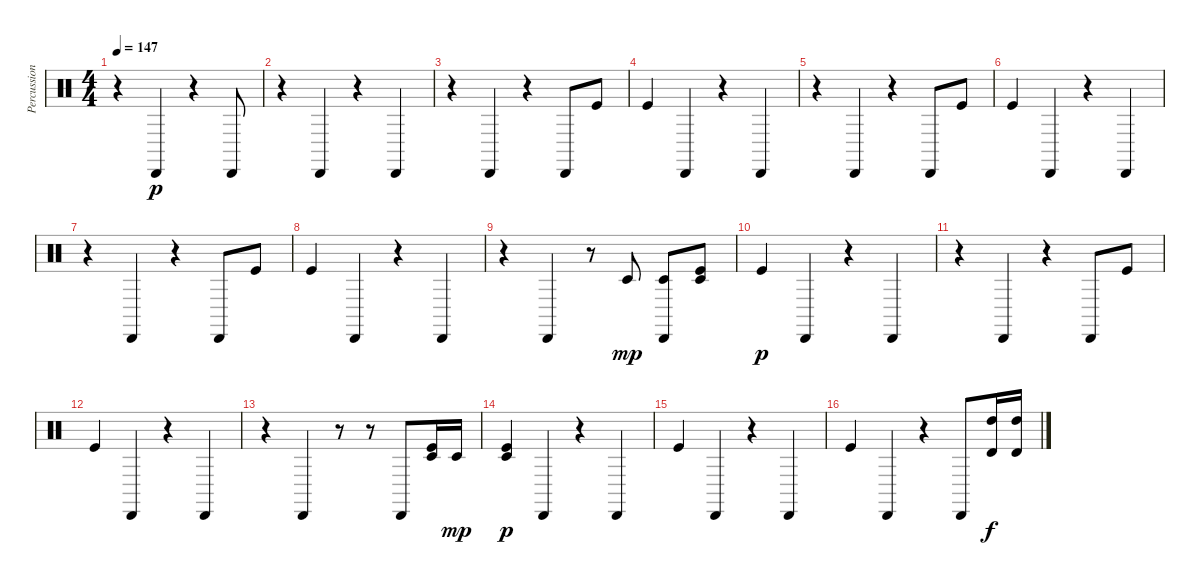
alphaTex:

\track ("Percussions" "Percussion") {instrument percussion}
\staff {score}
\articulation defaults
\ts (4 4)
\tempo 147
\clef neutral
\ks c
r.4{dy p} "Cabasa (hit)".4 r.4 "Cabasa (hit)".8 |
r.4 "Cabasa (hit)".4 r.4 "Cabasa (hit)".4 |
r.4 "Cabasa (hit)".4 r.4 "Cabasa (hit)".8 "Kick (hit)".8 |
"Kick (hit)".4 "Cabasa (hit)".4 r.4 "Cabasa (hit)".4 |
r.4 "Cabasa (hit)".4 r.4 "Cabasa (hit)".8 "Kick (hit)".8 |
"Kick (hit)".4 "Cabasa (hit)".4 r.4 "Cabasa (hit)".4 |
r.4 "Cabasa (hit)".4 r.4 "Cabasa (hit)".8 "Kick (hit)".8 |
"Kick (hit)".4 "Cabasa (hit)".4 r.4 "Cabasa (hit)".4 |
r.4 "Cabasa (hit)".4 r.8 "Timbale low (hit)".8{dy mp} ("Cabasa (hit)" "Timbale low (hit)").8 ("Kick (hit)" "Timbale low (hit)").8 |
"Kick (hit)".4{dy p} "Cabasa (hit)".4 r.4 "Cabasa (hit)".4 |
r.4 "Cabasa (hit)".4 r.4 "Cabasa (hit)".8 "Kick (hit)".8 |
"Kick (hit)".4 "Cabasa (hit)".4 r.4 "Cabasa (hit)".4 |
r.4 "Cabasa (hit)".4 r.8 r.8 "Cabasa (hit)".8 ("Kick (hit)" "Timbale low (hit)").16 "Timbale low (hit)".16{dy mp} |
("Kick (hit)" "Timbale low (hit)").4{dy p} "Cabasa (hit)".4 r.4 "Cabasa (hit)".4 |
"Kick (hit)".4 "Cabasa (hit)".4 r.4 "Cabasa (hit)".4 |
"Kick (hit)".4 "Cabasa (hit)".4 r.4 "Cabasa (hit)".8 ("Timbale high (hit)" "High Tom (hit)").16{dy f} ("Timbale high (hit)" "High Tom (hit)").16
